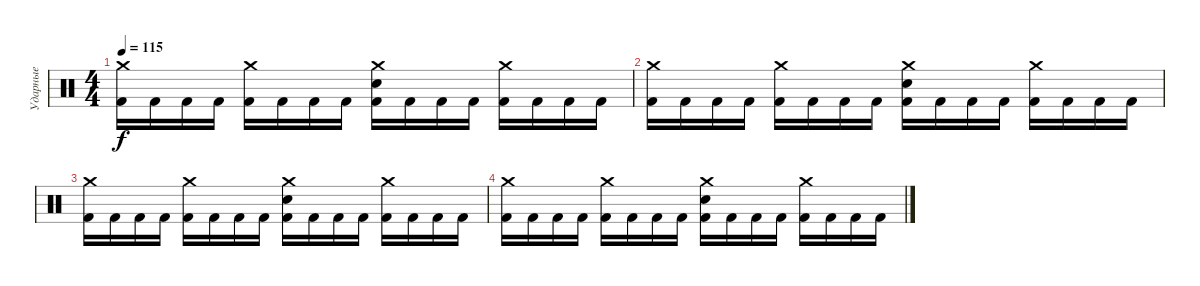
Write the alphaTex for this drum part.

\track ("Ударные" "Ударные") {instrument percussion}
\staff {score}
\articulation defaults
\ts (4 4)
\tempo 115
\clef neutral
\ks c
("Crash medium (hit)" "Kick (hit) 2").16{dy f} "Kick (hit) 2".16 "Kick (hit) 2".16 "Kick (hit) 2".16 ("Crash medium (hit)" "Kick (hit) 2").16 "Kick (hit) 2".16 "Kick (hit) 2".16 "Kick (hit) 2".16 ("Crash medium (hit)" "Electric Snare (hit)" "Kick (hit) 2").16 "Kick (hit) 2".16 "Kick (hit) 2".16 "Kick (hit) 2".16 ("Crash medium (hit)" "Kick (hit) 2").16 "Kick (hit) 2".16 "Kick (hit) 2".16 "Kick (hit) 2".16 |
("Crash medium (hit)" "Kick (hit) 2").16 "Kick (hit) 2".16 "Kick (hit) 2".16 "Kick (hit) 2".16 ("Crash medium (hit)" "Kick (hit) 2").16 "Kick (hit) 2".16 "Kick (hit) 2".16 "Kick (hit) 2".16 ("Crash medium (hit)" "Electric Snare (hit)" "Kick (hit) 2").16 "Kick (hit) 2".16 "Kick (hit) 2".16 "Kick (hit) 2".16 ("Crash medium (hit)" "Kick (hit) 2").16 "Kick (hit) 2".16 "Kick (hit) 2".16 "Kick (hit) 2".16 |
("Crash medium (hit)" "Kick (hit) 2").16 "Kick (hit) 2".16 "Kick (hit) 2".16 "Kick (hit) 2".16 ("Crash medium (hit)" "Kick (hit) 2").16 "Kick (hit) 2".16 "Kick (hit) 2".16 "Kick (hit) 2".16 ("Crash medium (hit)" "Electric Snare (hit)" "Kick (hit) 2").16 "Kick (hit) 2".16 "Kick (hit) 2".16 "Kick (hit) 2".16 ("Crash medium (hit)" "Kick (hit) 2").16 "Kick (hit) 2".16 "Kick (hit) 2".16 "Kick (hit) 2".16 |
("Crash medium (hit)" "Kick (hit) 2").16 "Kick (hit) 2".16 "Kick (hit) 2".16 "Kick (hit) 2".16 ("Crash medium (hit)" "Kick (hit) 2").16 "Kick (hit) 2".16 "Kick (hit) 2".16 "Kick (hit) 2".16 ("Crash medium (hit)" "Electric Snare (hit)" "Kick (hit) 2").16 "Kick (hit) 2".16 "Kick (hit) 2".16 "Kick (hit) 2".16 ("Crash medium (hit)" "Kick (hit) 2").16 "Kick (hit) 2".16 "Kick (hit) 2".16 "Kick (hit) 2".16
